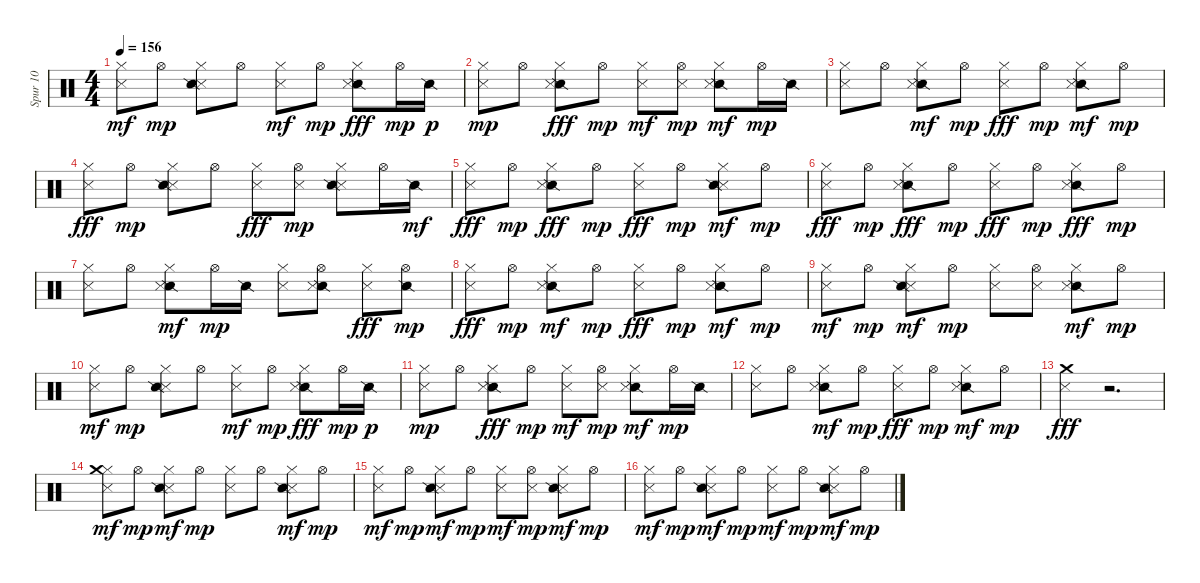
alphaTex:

\track ("Spur 10" "Spur 10") {instrument percussion}
\staff {score}
\articulation defaults
\ts (4 4)
\tempo 156
\clef neutral
\ks c
("Metronome (hit)" "Hi-Hat (closed)").8{dy mf} "Hi-Hat (open)".8{dy mp} ("Metronome (hit)" "Snare (side stick) 2" "Hi-Hat (closed)").8 "Hi-Hat (open)".8 ("Metronome (hit)" "Hi-Hat (closed)").8{dy mf} "Hi-Hat (open)".8{dy mp} ("Snare (side stick) 2" "Metronome (hit)" "Hi-Hat (closed)").8{dy fff} "Hi-Hat (open)".16{dy mp} "Snare (side stick) 2".16{dy p} |
("Metronome (hit)" "Hi-Hat (closed)").8{dy mp} "Hi-Hat (open)".8 ("Snare (side stick) 2" "Metronome (hit)" "Hi-Hat (closed)").8{dy fff} "Hi-Hat (open)".8{dy mp} ("Metronome (hit)" "Hi-Hat (closed)").8{dy mf} ("Metronome (hit)" "Hi-Hat (open)").8{dy mp} ("Snare (side stick) 2" "Metronome (hit)" "Hi-Hat (closed)").8{dy mf} "Hi-Hat (open)".16{dy mp} "Snare (side stick) 2".16 |
("Metronome (hit)" "Hi-Hat (closed)").8 "Hi-Hat (open)".8 ("Snare (side stick) 2" "Metronome (hit)" "Hi-Hat (closed)").8{dy mf} "Hi-Hat (open)".8{dy mp} ("Metronome (hit)" "Hi-Hat (closed)").8{dy fff} "Hi-Hat (open)".8{dy mp} ("Snare (side stick) 2" "Metronome (hit)" "Hi-Hat (closed)").8{dy mf} "Hi-Hat (open)".8{dy mp} |
("Metronome (hit)" "Hi-Hat (closed)").8{dy fff} "Hi-Hat (open)".8{dy mp} ("Metronome (hit)" "Snare (side stick) 2" "Hi-Hat (closed)").8 "Hi-Hat (open)".8 ("Metronome (hit)" "Hi-Hat (closed)").8{dy fff} ("Metronome (hit)" "Hi-Hat (open)").8{dy mp} ("Metronome (hit)" "Snare (side stick) 2" "Hi-Hat (closed)").8 "Hi-Hat (open)".16 "Snare (side stick) 2".16{dy mf} |
("Metronome (hit)" "Hi-Hat (closed)").8{dy fff} "Hi-Hat (open)".8{dy mp} ("Snare (side stick) 2" "Metronome (hit)" "Hi-Hat (closed)").8{dy fff} "Hi-Hat (open)".8{dy mp} ("Metronome (hit)" "Hi-Hat (closed)").8{dy fff} "Hi-Hat (open)".8{dy mp} ("Metronome (hit)" "Snare (side stick) 2" "Hi-Hat (closed)").8{dy mf} "Hi-Hat (open)".8{dy mp} |
("Metronome (hit)" "Hi-Hat (closed)").8{dy fff} "Hi-Hat (open)".8{dy mp} ("Hi-Hat (closed)" "Snare (side stick) 2" "Metronome (hit)").8{dy fff} "Hi-Hat (open)".8{dy mp} ("Hi-Hat (closed)" "Metronome (hit)").8{dy fff} "Hi-Hat (open)".8{dy mp} ("Snare (side stick) 2" "Hi-Hat (closed)" "Metronome (hit)").8{dy fff} "Hi-Hat (open)".8{dy mp} |
("Metronome (hit)" "Hi-Hat (closed)").8 "Hi-Hat (open)".8 ("Snare (side stick) 2" "Metronome (hit)" "Hi-Hat (closed)").8{dy mf} "Hi-Hat (open)".16{dy mp} "Snare (side stick) 2".16 ("Metronome (hit)" "Hi-Hat (closed)").8 ("Snare (side stick) 2" "Metronome (hit)" "Hi-Hat (open)").8 ("Metronome (hit)" "Hi-Hat (closed)").8{dy fff} ("Snare (side stick) 2" "Hi-Hat (open)").8{dy mp} |
("Metronome (hit)" "Hi-Hat (closed)").8{dy fff} "Hi-Hat (open)".8{dy mp} ("Snare (side stick) 2" "Metronome (hit)" "Hi-Hat (closed)").8{dy mf} "Hi-Hat (open)".8{dy mp} ("Metronome (hit)" "Hi-Hat (closed)").8{dy fff} "Hi-Hat (open)".8{dy mp} ("Snare (side stick) 2" "Metronome (hit)" "Hi-Hat (closed)").8{dy mf} "Hi-Hat (open)".8{dy mp} |
("Metronome (hit)" "Hi-Hat (closed)").8{dy mf} "Hi-Hat (open)".8{dy mp} ("Metronome (hit)" "Snare (side stick) 2" "Hi-Hat (closed)").8{dy mf} "Hi-Hat (open)".8{dy mp} ("Metronome (hit)" "Hi-Hat (closed)").8 ("Metronome (hit)" "Hi-Hat (open)").8 ("Snare (side stick) 2" "Metronome (hit)" "Hi-Hat (closed)").8{dy mf} "Hi-Hat (open)".8{dy mp} |
("Metronome (hit)" "Hi-Hat (closed)").8{dy mf} "Hi-Hat (open)".8{dy mp} ("Metronome (hit)" "Snare (side stick) 2" "Hi-Hat (closed)").8 "Hi-Hat (open)".8 ("Metronome (hit)" "Hi-Hat (closed)").8{dy mf} "Hi-Hat (open)".8{dy mp} ("Snare (side stick) 2" "Metronome (hit)" "Hi-Hat (closed)").8{dy fff} "Hi-Hat (open)".16{dy mp} "Snare (side stick) 2".16{dy p} |
("Metronome (hit)" "Hi-Hat (closed)").8{dy mp} "Hi-Hat (open)".8 ("Snare (side stick) 2" "Metronome (hit)" "Hi-Hat (closed)").8{dy fff} "Hi-Hat (open)".8{dy mp} ("Metronome (hit)" "Hi-Hat (closed)").8{dy mf} ("Metronome (hit)" "Hi-Hat (open)").8{dy mp} ("Snare (side stick) 2" "Metronome (hit)" "Hi-Hat (closed)").8{dy mf} "Hi-Hat (open)".16{dy mp} "Snare (side stick) 2".16 |
("Metronome (hit)" "Hi-Hat (closed)").8 "Hi-Hat (open)".8 ("Snare (side stick) 2" "Metronome (hit)" "Hi-Hat (closed)").8{dy mf} "Hi-Hat (open)".8{dy mp} ("Metronome (hit)" "Hi-Hat (closed)").8{dy fff} "Hi-Hat (open)".8{dy mp} ("Snare (side stick) 2" "Metronome (hit)" "Hi-Hat (closed)").8{dy mf} "Hi-Hat (open)".8{dy mp} |
("Crash medium (hit)" "Metronome (hit)").4{dy fff} r.2{d} |
("Metronome (hit)" "Hi-Hat (closed)" "Crash medium (hit)").8{dy mf} "Hi-Hat (open)".8{dy mp} ("Metronome (hit)" "Snare (side stick) 2" "Hi-Hat (closed)").8{dy mf} "Hi-Hat (open)".8{dy mp} ("Metronome (hit)" "Hi-Hat (closed)").8 "Hi-Hat (open)".8 ("Metronome (hit)" "Snare (side stick) 2" "Hi-Hat (closed)").8{dy mf} "Hi-Hat (open)".8{dy mp} |
("Metronome (hit)" "Hi-Hat (closed)").8{dy mf} "Hi-Hat (open)".8{dy mp} ("Metronome (hit)" "Snare (side stick) 2" "Hi-Hat (closed)").8{dy mf} "Hi-Hat (open)".8{dy mp} ("Metronome (hit)" "Hi-Hat (closed)").8{dy mf} ("Metronome (hit)" "Hi-Hat (open)").8{dy mp} ("Metronome (hit)" "Snare (side stick) 2" "Hi-Hat (closed)").8{dy mf} "Hi-Hat (open)".8{dy mp} |
("Metronome (hit)" "Hi-Hat (closed)").8{dy mf} "Hi-Hat (open)".8{dy mp} ("Metronome (hit)" "Snare (side stick) 2" "Hi-Hat (closed)").8{dy mf} "Hi-Hat (open)".8{dy mp} ("Metronome (hit)" "Hi-Hat (closed)").8{dy mf} "Hi-Hat (open)".8{dy mp} ("Metronome (hit)" "Snare (side stick) 2" "Hi-Hat (closed)").8{dy mf} "Hi-Hat (open)".8{dy mp}
